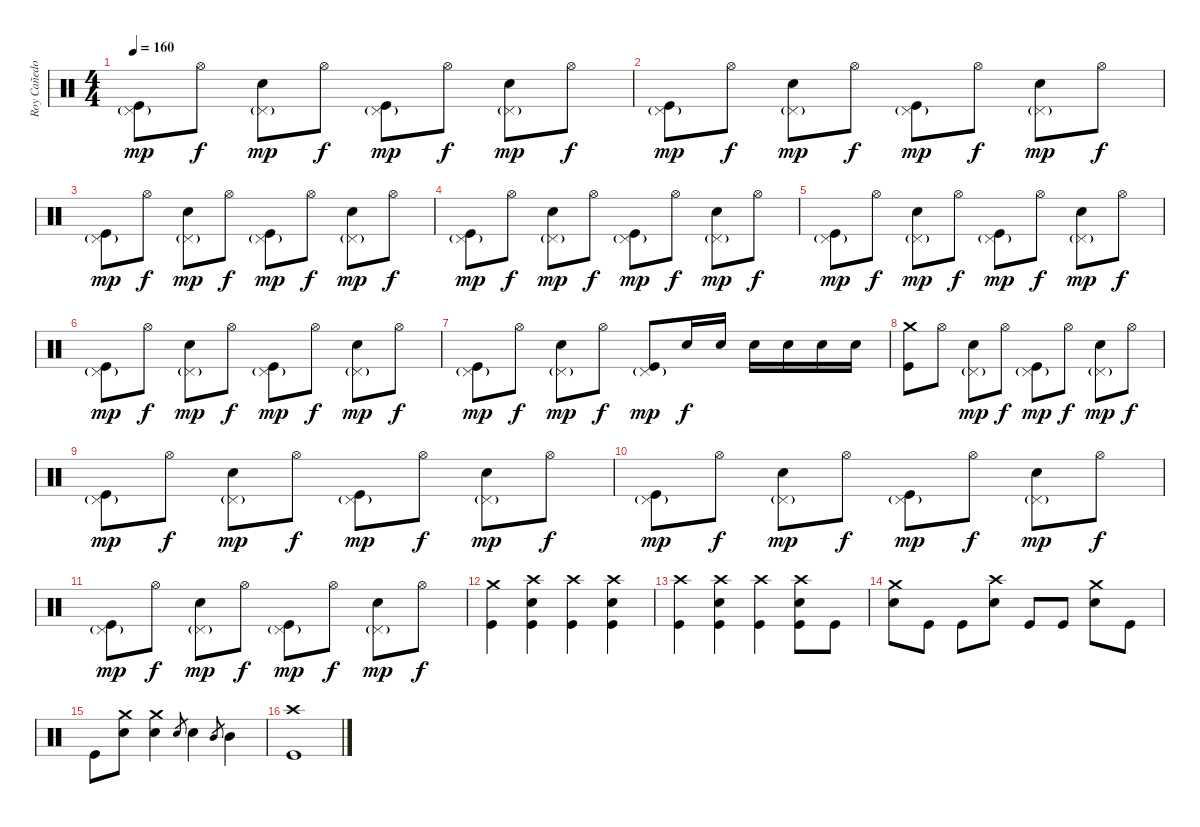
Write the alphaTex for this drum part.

\track ("Roy Cañedo" "Roy Cañedo") {instrument percussion}
\staff {score}
\articulation defaults
\ts (4 4)
\tempo 160
\clef neutral
\ks c
("Pedal Hi-Hat (hit)"{g} "Kick (hit)").8{dy mp} "Hi-Hat (open)".8{dy f} ("Pedal Hi-Hat (hit)"{g} "Snare (hit) 2").8{dy mp} "Hi-Hat (open)".8{dy f} ("Pedal Hi-Hat (hit)"{g} "Kick (hit)").8{dy mp} "Hi-Hat (open)".8{dy f} ("Pedal Hi-Hat (hit)"{g} "Snare (hit) 2").8{dy mp} "Hi-Hat (open)".8{dy f} |
("Pedal Hi-Hat (hit)"{g} "Kick (hit)").8{dy mp} "Hi-Hat (open)".8{dy f} ("Pedal Hi-Hat (hit)"{g} "Snare (hit) 2").8{dy mp} "Hi-Hat (open)".8{dy f} ("Pedal Hi-Hat (hit)"{g} "Kick (hit)").8{dy mp} "Hi-Hat (open)".8{dy f} ("Pedal Hi-Hat (hit)"{g} "Snare (hit) 2").8{dy mp} "Hi-Hat (open)".8{dy f} |
("Pedal Hi-Hat (hit)"{g} "Kick (hit)").8{dy mp} "Hi-Hat (open)".8{dy f} ("Pedal Hi-Hat (hit)"{g} "Snare (hit) 2").8{dy mp} "Hi-Hat (open)".8{dy f} ("Pedal Hi-Hat (hit)"{g} "Kick (hit)").8{dy mp} "Hi-Hat (open)".8{dy f} ("Pedal Hi-Hat (hit)"{g} "Snare (hit) 2").8{dy mp} "Hi-Hat (open)".8{dy f} |
("Pedal Hi-Hat (hit)"{g} "Kick (hit)").8{dy mp} "Hi-Hat (open)".8{dy f} ("Pedal Hi-Hat (hit)"{g} "Snare (hit) 2").8{dy mp} "Hi-Hat (open)".8{dy f} ("Pedal Hi-Hat (hit)"{g} "Kick (hit)").8{dy mp} "Hi-Hat (open)".8{dy f} ("Pedal Hi-Hat (hit)"{g} "Snare (hit) 2").8{dy mp} "Hi-Hat (open)".8{dy f} |
("Pedal Hi-Hat (hit)"{g} "Kick (hit)").8{dy mp} "Hi-Hat (open)".8{dy f} ("Pedal Hi-Hat (hit)"{g} "Snare (hit) 2").8{dy mp} "Hi-Hat (open)".8{dy f} ("Pedal Hi-Hat (hit)"{g} "Kick (hit)").8{dy mp} "Hi-Hat (open)".8{dy f} ("Pedal Hi-Hat (hit)"{g} "Snare (hit) 2").8{dy mp} "Hi-Hat (open)".8{dy f} |
("Pedal Hi-Hat (hit)"{g} "Kick (hit)").8{dy mp} "Hi-Hat (open)".8{dy f} ("Pedal Hi-Hat (hit)"{g} "Snare (hit) 2").8{dy mp} "Hi-Hat (open)".8{dy f} ("Pedal Hi-Hat (hit)"{g} "Kick (hit)").8{dy mp} "Hi-Hat (open)".8{dy f} ("Pedal Hi-Hat (hit)"{g} "Snare (hit) 2").8{dy mp} "Hi-Hat (open)".8{dy f} |
("Pedal Hi-Hat (hit)"{g} "Kick (hit)").8{dy mp} "Hi-Hat (open)".8{dy f} ("Pedal Hi-Hat (hit)"{g} "Snare (hit) 2").8{dy mp} "Hi-Hat (open)".8{dy f} ("Pedal Hi-Hat (hit)"{g} "Kick (hit)").8{dy mp} "Snare (hit) 2".16{dy f} "Snare (hit) 2".16 "Snare (hit) 2".16 "Snare (hit) 2".16 "Snare (hit) 2".16 "Snare (hit) 2".16 |
("Crash medium (hit)" "Kick (hit)").8 "Hi-Hat (open)".8 ("Pedal Hi-Hat (hit)"{g} "Snare (hit) 2").8{dy mp} "Hi-Hat (open)".8{dy f} ("Pedal Hi-Hat (hit)"{g} "Kick (hit)").8{dy mp} "Hi-Hat (open)".8{dy f} ("Pedal Hi-Hat (hit)"{g} "Snare (hit) 2").8{dy mp} "Hi-Hat (open)".8{dy f} |
("Pedal Hi-Hat (hit)"{g} "Kick (hit)").8{dy mp} "Hi-Hat (open)".8{dy f} ("Pedal Hi-Hat (hit)"{g} "Snare (hit) 2").8{dy mp} "Hi-Hat (open)".8{dy f} ("Pedal Hi-Hat (hit)"{g} "Kick (hit)").8{dy mp} "Hi-Hat (open)".8{dy f} ("Pedal Hi-Hat (hit)"{g} "Snare (hit) 2").8{dy mp} "Hi-Hat (open)".8{dy f} |
("Pedal Hi-Hat (hit)"{g} "Kick (hit)").8{dy mp} "Hi-Hat (open)".8{dy f} ("Pedal Hi-Hat (hit)"{g} "Snare (hit) 2").8{dy mp} "Hi-Hat (open)".8{dy f} ("Pedal Hi-Hat (hit)"{g} "Kick (hit)").8{dy mp} "Hi-Hat (open)".8{dy f} ("Pedal Hi-Hat (hit)"{g} "Snare (hit) 2").8{dy mp} "Hi-Hat (open)".8{dy f} |
("Pedal Hi-Hat (hit)"{g} "Kick (hit)").8{dy mp} "Hi-Hat (open)".8{dy f} ("Pedal Hi-Hat (hit)"{g} "Snare (hit) 2").8{dy mp} "Hi-Hat (open)".8{dy f} ("Pedal Hi-Hat (hit)"{g} "Kick (hit)").8{dy mp} "Hi-Hat (open)".8{dy f} ("Pedal Hi-Hat (hit)"{g} "Snare (hit) 2").8{dy mp} "Hi-Hat (open)".8{dy f} |
("Crash medium (hit)" "Kick (hit)").4 ("Crash high (hit)" "Snare (hit) 2" "Kick (hit)").4 ("Crash high (hit)" "Kick (hit)").4 ("Crash high (hit)" "Snare (hit) 2" "Kick (hit)").4 |
("Crash high (hit)" "Kick (hit)").4 ("Crash high (hit)" "Snare (hit) 2" "Kick (hit)").4 ("Crash high (hit)" "Kick (hit)").4 ("Crash high (hit)" "Snare (hit) 2" "Kick (hit)").8 "Kick (hit)".8 |
("Crash medium (hit)" "Snare (hit) 2").8 "Kick (hit)".8 "Kick (hit)".8 ("Crash high (hit)" "Snare (hit) 2").8 "Kick (hit)".8 "Kick (hit)".8 ("Crash medium (hit)" "Snare (hit) 2").8 "Kick (hit)".8 |
"Kick (hit)".8 ("Crash medium (hit)" "Snare (hit) 2").8 ("Crash medium (hit)" "Snare (hit) 2").4 "Snare (hit) 2".8{gr} "Snare (hit) 2".4 "Mid Tom (hit)".8{gr} "Mid Tom (hit)".4 |
("Crash high (hit)" "Kick (hit)").1
